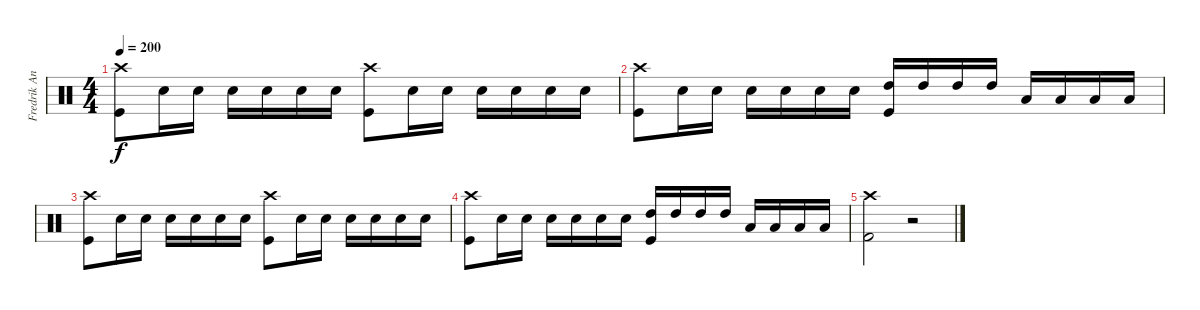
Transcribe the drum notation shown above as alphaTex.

\track ("Fredrik Andersson " "Fredrik An") {instrument percussion}
\staff {score}
\articulation defaults
\ts (4 4)
\tempo 200
\clef neutral
\ks c
("Crash high (hit)" "Kick (hit)").8{dy f} "Snare (hit) 2".16 "Snare (hit) 2".16 "Snare (hit) 2".16 "Snare (hit) 2".16 "Snare (hit) 2".16 "Snare (hit) 2".16 ("Crash high (hit)" "Kick (hit)").8 "Snare (hit) 2".16 "Snare (hit) 2".16 "Snare (hit) 2".16 "Snare (hit) 2".16 "Snare (hit) 2".16 "Snare (hit) 2".16 |
("Crash high (hit)" "Kick (hit)").8 "Snare (hit) 2".16 "Snare (hit) 2".16 "Snare (hit) 2".16 "Snare (hit) 2".16 "Snare (hit) 2".16 "Snare (hit) 2".16 ("High Tom (hit)" "Kick (hit)").16 "High Tom (hit)".16 "High Tom (hit)".16 "High Tom (hit)".16 "Low Tom (hit)".16 "Low Tom (hit)".16 "Low Tom (hit)".16 "Low Tom (hit)".16 |
("Crash high (hit)" "Kick (hit)").8 "Snare (hit) 2".16 "Snare (hit) 2".16 "Snare (hit) 2".16 "Snare (hit) 2".16 "Snare (hit) 2".16 "Snare (hit) 2".16 ("Crash high (hit)" "Kick (hit)").8 "Snare (hit) 2".16 "Snare (hit) 2".16 "Snare (hit) 2".16 "Snare (hit) 2".16 "Snare (hit) 2".16 "Snare (hit) 2".16 |
("Crash high (hit)" "Kick (hit)").8 "Snare (hit) 2".16 "Snare (hit) 2".16 "Snare (hit) 2".16 "Snare (hit) 2".16 "Snare (hit) 2".16 "Snare (hit) 2".16 ("High Tom (hit)" "Kick (hit)").16 "High Tom (hit)".16 "High Tom (hit)".16 "High Tom (hit)".16 "Low Tom (hit)".16 "Low Tom (hit)".16 "Low Tom (hit)".16 "Low Tom (hit)".16 |
("Crash high (hit)" "Kick (hit) 2").2 r.2
